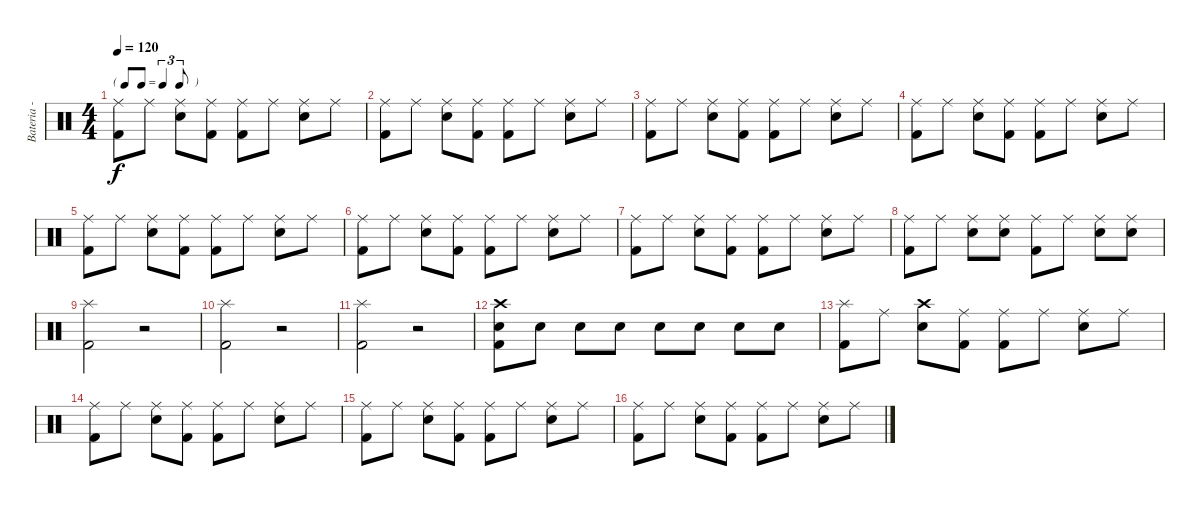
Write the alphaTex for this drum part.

\track ("Bateria - Cris Layton" "Bateria - ") {instrument percussion}
\staff {score}
\articulation defaults
\ts (4 4)
\tf triplet8th
\tempo 120
\clef neutral
\ks c
("Ride (middle)" "Kick (hit) 2").8{dy f} "Ride (middle)".8 ("Ride (middle)" "Electric Snare (hit)").8 ("Ride (middle)" "Kick (hit) 2").8 ("Ride (middle)" "Kick (hit) 2").8 "Ride (middle)".8 ("Ride (middle)" "Electric Snare (hit)").8 "Ride (middle)".8 |
("Ride (middle)" "Kick (hit) 2").8 "Ride (middle)".8 ("Ride (middle)" "Electric Snare (hit)").8 ("Ride (middle)" "Kick (hit) 2").8 ("Ride (middle)" "Kick (hit) 2").8 "Ride (middle)".8 ("Ride (middle)" "Electric Snare (hit)").8 "Ride (middle)".8 |
("Ride (middle)" "Kick (hit) 2").8 "Ride (middle)".8 ("Ride (middle)" "Electric Snare (hit)").8 ("Ride (middle)" "Kick (hit) 2").8 ("Ride (middle)" "Kick (hit) 2").8 "Ride (middle)".8 ("Ride (middle)" "Electric Snare (hit)").8 "Ride (middle)".8 |
("Ride (middle)" "Kick (hit) 2").8 "Ride (middle)".8 ("Ride (middle)" "Electric Snare (hit)").8 ("Ride (middle)" "Kick (hit) 2").8 ("Ride (middle)" "Kick (hit) 2").8 "Ride (middle)".8 ("Ride (middle)" "Electric Snare (hit)").8 "Ride (middle)".8 |
("Ride (middle)" "Kick (hit) 2").8 "Ride (middle)".8 ("Ride (middle)" "Electric Snare (hit)").8 ("Ride (middle)" "Kick (hit) 2").8 ("Ride (middle)" "Kick (hit) 2").8 "Ride (middle)".8 ("Ride (middle)" "Electric Snare (hit)").8 "Ride (middle)".8 |
("Ride (middle)" "Kick (hit) 2").8 "Ride (middle)".8 ("Ride (middle)" "Electric Snare (hit)").8 ("Ride (middle)" "Kick (hit) 2").8 ("Ride (middle)" "Kick (hit) 2").8 "Ride (middle)".8 ("Ride (middle)" "Electric Snare (hit)").8 "Ride (middle)".8 |
("Ride (middle)" "Kick (hit) 2").8 "Ride (middle)".8 ("Ride (middle)" "Electric Snare (hit)").8 ("Ride (middle)" "Kick (hit) 2").8 ("Ride (middle)" "Kick (hit) 2").8 "Ride (middle)".8 ("Ride (middle)" "Electric Snare (hit)").8 "Ride (middle)".8 |
("Ride (middle)" "Kick (hit) 2").8 "Ride (middle)".8 ("Ride (middle)" "Electric Snare (hit)").8 ("Ride (middle)" "Electric Snare (hit)").8 ("Ride (middle)" "Kick (hit) 2").8 "Ride (middle)".8 ("Ride (middle)" "Electric Snare (hit)").8 ("Ride (middle)" "Electric Snare (hit)").8 |
("Splash (hit)" "Kick (hit) 2").2 r.2 |
("Splash (hit)" "Kick (hit) 2").2 r.2 |
("Splash (hit)" "Kick (hit) 2").2 r.2 |
("Crash high (hit)" "Electric Snare (hit)" "Kick (hit) 2").8 "Electric Snare (hit)".8 "Electric Snare (hit)".8 "Electric Snare (hit)".8 "Electric Snare (hit)".8 "Electric Snare (hit)".8 "Electric Snare (hit)".8 "Electric Snare (hit)".8 |
("Splash (hit)" "Kick (hit) 2").8 "Ride (middle)".8 ("Crash high (hit)" "Electric Snare (hit)").8 ("Ride (middle)" "Kick (hit) 2").8 ("Ride (middle)" "Kick (hit) 2").8 "Ride (middle)".8 ("Ride (middle)" "Electric Snare (hit)").8 "Ride (middle)".8 |
("Ride (middle)" "Kick (hit) 2").8 "Ride (middle)".8 ("Ride (middle)" "Electric Snare (hit)").8 ("Ride (middle)" "Kick (hit) 2").8 ("Ride (middle)" "Kick (hit) 2").8 "Ride (middle)".8 ("Ride (middle)" "Electric Snare (hit)").8 "Ride (middle)".8 |
("Ride (middle)" "Kick (hit) 2").8 "Ride (middle)".8 ("Ride (middle)" "Electric Snare (hit)").8 ("Ride (middle)" "Kick (hit) 2").8 ("Ride (middle)" "Kick (hit) 2").8 "Ride (middle)".8 ("Ride (middle)" "Electric Snare (hit)").8 "Ride (middle)".8 |
("Ride (middle)" "Kick (hit) 2").8 "Ride (middle)".8 ("Ride (middle)" "Electric Snare (hit)").8 ("Ride (middle)" "Kick (hit) 2").8 ("Ride (middle)" "Kick (hit) 2").8 "Ride (middle)".8 ("Ride (middle)" "Electric Snare (hit)").8 "Ride (middle)".8
